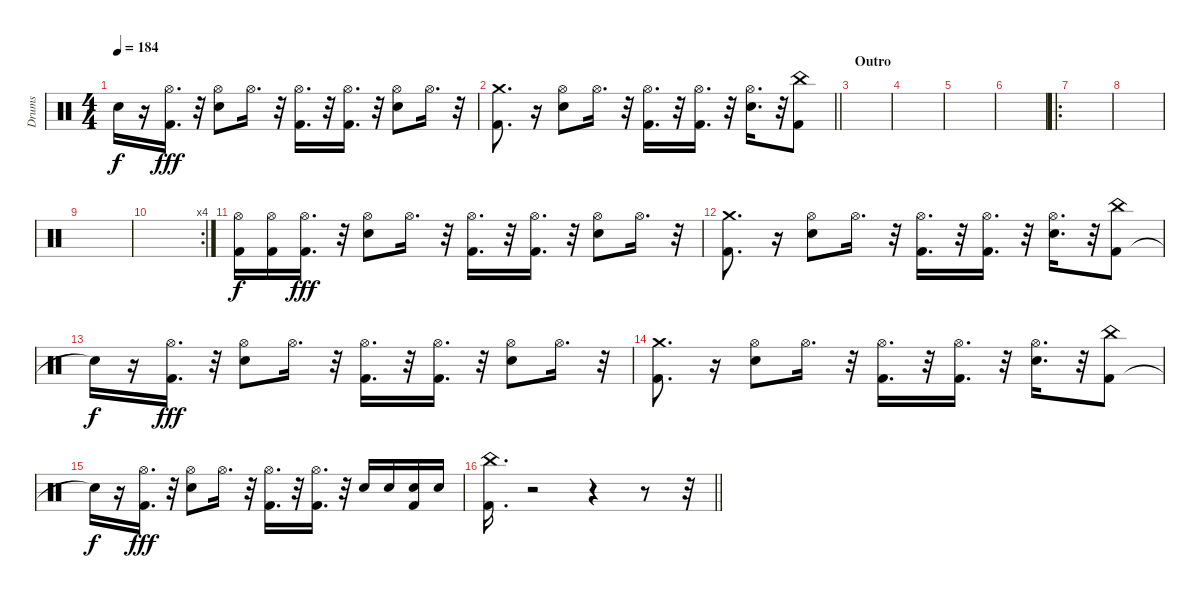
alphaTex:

\track ("Drums" "Drums") {instrument percussion}
\staff {score}
\articulation defaults
\ts (4 4)
\tempo 184
\clef neutral
\ks c "Snare (hit)"{t}.16{dy f}
r.16 ("Kick (hit) 2" "Hi-Hat (open)").16{d dy fff} r.32 ("Electric Snare (hit)" "Hi-Hat (open)").8 "Hi-Hat (open)".16{d} r.32 ("Kick (hit) 2" "Hi-Hat (open)").16{d} r.32 ("Kick (hit) 2" "Hi-Hat (open)").16{d} r.32 ("Electric Snare (hit)" "Hi-Hat (open)").8 "Hi-Hat (open)".16{d} r.32 |
\barLineRight lightlight
("Kick (hit) 2" "Crash medium (hit)").8{d} r.16 ("Electric Snare (hit)" "Hi-Hat (open)").8 "Hi-Hat (open)".16{d} r.32 ("Hi-Hat (open)" "Kick (hit) 2").16{d} r.32 ("Hi-Hat (open)" "Kick (hit) 2").16{d} r.32 ("Hi-Hat (open)" "Electric Snare (hit)").16{d} r.32 ("Kick (hit) 2" "China (hit)").8 |
\section ("" "Outro")
|
|
|
|
\ro
|
|
|
\rc 4
|
("Kick (hit) 2" "Hi-Hat (open)").16{dy f} ("Kick (hit) 2" "Hi-Hat (open)").16 ("Kick (hit) 2" "Hi-Hat (open)").16{d dy fff} r.32 ("Electric Snare (hit)" "Hi-Hat (open)").8 "Hi-Hat (open)".16{d} r.32 ("Kick (hit) 2" "Hi-Hat (open)").16{d} r.32 ("Kick (hit) 2" "Hi-Hat (open)").16{d} r.32 ("Electric Snare (hit)" "Hi-Hat (open)").8 "Hi-Hat (open)".16{d} r.32 |
("Kick (hit) 2" "Crash medium (hit)").8{d} r.16 ("Electric Snare (hit)" "Hi-Hat (open)").8 "Hi-Hat (open)".16{d} r.32 ("Hi-Hat (open)" "Kick (hit) 2").16{d} r.32 ("Hi-Hat (open)" "Kick (hit) 2").16{d} r.32 ("Hi-Hat (open)" "Electric Snare (hit)").16{d} r.32 ("Kick (hit) 2" "China (hit)").8 |
"Snare (hit)"{t}.16{dy f} r.16 ("Kick (hit) 2" "Hi-Hat (open)").16{d dy fff} r.32 ("Electric Snare (hit)" "Hi-Hat (open)").8 "Hi-Hat (open)".16{d} r.32 ("Kick (hit) 2" "Hi-Hat (open)").16{d} r.32 ("Kick (hit) 2" "Hi-Hat (open)").16{d} r.32 ("Electric Snare (hit)" "Hi-Hat (open)").8 "Hi-Hat (open)".16{d} r.32 |
("Kick (hit) 2" "Crash medium (hit)").8{d} r.16 ("Electric Snare (hit)" "Hi-Hat (open)").8 "Hi-Hat (open)".16{d} r.32 ("Hi-Hat (open)" "Kick (hit) 2").16{d} r.32 ("Hi-Hat (open)" "Kick (hit) 2").16{d} r.32 ("Hi-Hat (open)" "Electric Snare (hit)").16{d} r.32 ("Kick (hit) 2" "China (hit)").8 |
"Snare (hit)"{t}.16{dy f} r.16 ("Kick (hit) 2" "Hi-Hat (open)").16{d dy fff} r.32 ("Electric Snare (hit)" "Hi-Hat (open)").8 "Hi-Hat (open)".16{d} r.32 ("Kick (hit) 2" "Hi-Hat (open)").16{d} r.32 ("Kick (hit) 2" "Hi-Hat (open)").16{d} r.32 "Electric Snare (hit)".16 "Electric Snare (hit)".16 ("Kick (hit) 2" "Electric Snare (hit)").16 "Electric Snare (hit)".16 |
\barLineRight lightlight
("China (hit)" "Kick (hit) 2").16{d} r.2 r.4 r.8 r.32
